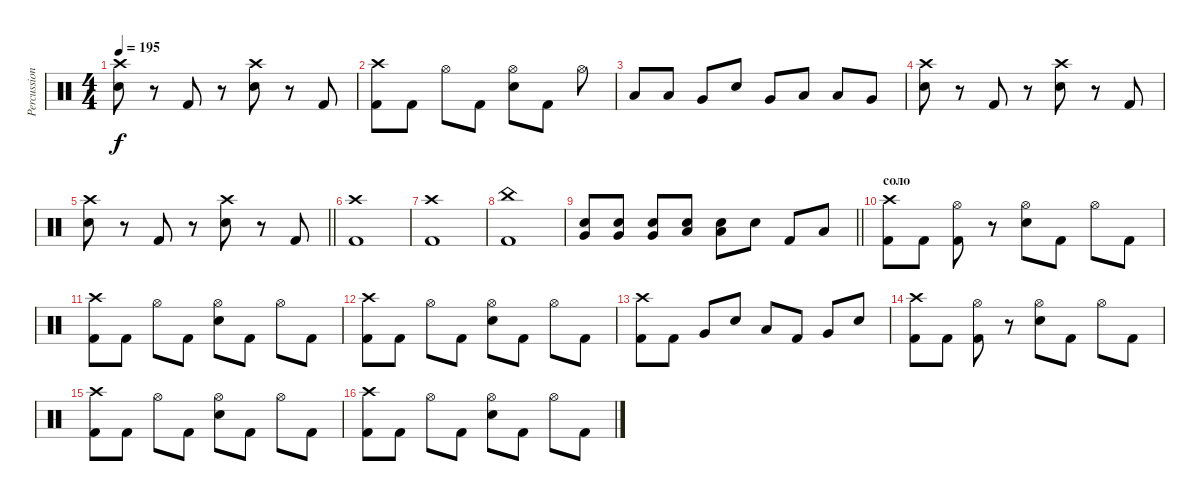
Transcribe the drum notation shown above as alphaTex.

\track ("Percussions" "Percussion") {instrument percussion}
\staff {score}
\articulation defaults
\ts (4 4)
\tempo 195
\clef neutral
\ks c
("Crash high (hit)" "Electric Snare (hit)").8{dy f} r.8 "Kick (hit) 2".8 r.8 ("Crash high (hit)" "Electric Snare (hit)").8 r.8 "Kick (hit) 2".8 |
("Crash high (hit)" "Kick (hit) 2").8 "Kick (hit) 2".8 "Hi-Hat (open)".8 "Kick (hit) 2".8 ("Hi-Hat (open)" "Electric Snare (hit)").8 "Kick (hit) 2".8 "Hi-Hat (open)".8 |
"Low Floor Tom (hit)".8 "Low Floor Tom (hit)".8 "Very Low Tom (hit)".8 "Electric Snare (hit)".8 "Very Low Tom (hit)".8 "Low Floor Tom (hit)".8 "Low Floor Tom (hit)".8 "Very Low Tom (hit)".8 |
("Crash high (hit)" "Electric Snare (hit)").8 r.8 "Kick (hit) 2".8 r.8 ("Crash high (hit)" "Electric Snare (hit)").8 r.8 "Kick (hit) 2".8 |
\barLineRight lightlight
("Crash high (hit)" "Electric Snare (hit)").8 r.8 "Kick (hit) 2".8 r.8 ("Crash high (hit)" "Electric Snare (hit)").8 r.8 "Kick (hit) 2".8 |
\section ("" "")
("Crash high (hit)" "Kick (hit) 2").1 |
("Crash high (hit)" "Kick (hit) 2").1 |
("China (hit)" "Kick (hit) 2").1 |
\barLineRight lightlight
("Very Low Tom (hit)" "Electric Snare (hit)").8 ("Very Low Tom (hit)" "Electric Snare (hit)").8 ("Very Low Tom (hit)" "Electric Snare (hit)").8 ("Electric Snare (hit)" "Low Floor Tom (hit)").8 ("Electric Snare (hit)" "Low Floor Tom (hit)").8 "Electric Snare (hit)".8 "Kick (hit) 2".8 "Low Floor Tom (hit)".8 |
\section ("" "соло")
("Kick (hit) 2" "Crash high (hit)").8 "Kick (hit) 2".8 ("Kick (hit) 2" "Hi-Hat (open)").8 r.8 ("Electric Snare (hit)" "Hi-Hat (open)").8 "Kick (hit) 2".8 "Hi-Hat (open)".8 "Kick (hit) 2".8 |
("Kick (hit) 2" "Crash high (hit)").8 "Kick (hit) 2".8 "Hi-Hat (open)".8 "Kick (hit) 2".8 ("Electric Snare (hit)" "Hi-Hat (open)").8 "Kick (hit) 2".8 "Hi-Hat (open)".8 "Kick (hit) 2".8 |
("Kick (hit) 2" "Crash high (hit)").8 "Kick (hit) 2".8 "Hi-Hat (open)".8 "Kick (hit) 2".8 ("Electric Snare (hit)" "Hi-Hat (open)").8 "Kick (hit) 2".8 "Hi-Hat (open)".8 "Kick (hit) 2".8 |
("Kick (hit) 2" "Crash high (hit)").8 "Kick (hit) 2".8 "Very Low Tom (hit)".8 "Electric Snare (hit)".8 "Low Floor Tom (hit)".8 "Kick (hit) 2".8 "Very Low Tom (hit)".8 "Electric Snare (hit)".8 |
("Kick (hit) 2" "Crash high (hit)").8 "Kick (hit) 2".8 ("Kick (hit) 2" "Hi-Hat (open)").8 r.8 ("Electric Snare (hit)" "Hi-Hat (open)").8 "Kick (hit) 2".8 "Hi-Hat (open)".8 "Kick (hit) 2".8 |
("Kick (hit) 2" "Crash high (hit)").8 "Kick (hit) 2".8 "Hi-Hat (open)".8 "Kick (hit) 2".8 ("Electric Snare (hit)" "Hi-Hat (open)").8 "Kick (hit) 2".8 "Hi-Hat (open)".8 "Kick (hit) 2".8 |
("Kick (hit) 2" "Crash high (hit)").8 "Kick (hit) 2".8 "Hi-Hat (open)".8 "Kick (hit) 2".8 ("Electric Snare (hit)" "Hi-Hat (open)").8 "Kick (hit) 2".8 "Hi-Hat (open)".8 "Kick (hit) 2".8
